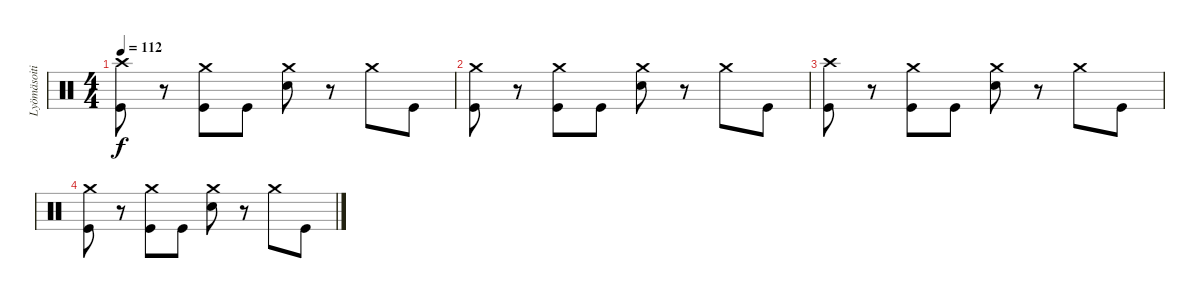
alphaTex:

\track ("Lyömäsoitin" "Lyömäsoiti") {instrument percussion}
\staff {score}
\articulation defaults
\ts (4 4)
\tempo 112
\clef neutral
\ks c
("Crash high (hit)" "Kick (hit)").8{dy f} r.8 ("Crash medium (hit)" "Kick (hit)").8 "Kick (hit)".8 ("Crash medium (hit)" "Snare (hit) 2").8 r.8 "Crash medium (hit)".8 "Kick (hit)".8 |
("Crash medium (hit)" "Kick (hit)").8{volume 0} r.8 ("Crash medium (hit)" "Kick (hit)").8 "Kick (hit)".8 ("Crash medium (hit)" "Snare (hit) 2").8 r.8 "Crash medium (hit)".8 "Kick (hit)".8 |
("Crash high (hit)" "Kick (hit)").8 r.8 ("Crash medium (hit)" "Kick (hit)").8 "Kick (hit)".8 ("Crash medium (hit)" "Snare (hit) 2").8 r.8 "Crash medium (hit)".8 "Kick (hit)".8 |
("Crash medium (hit)" "Kick (hit)").8 r.8 ("Crash medium (hit)" "Kick (hit)").8 "Kick (hit)".8 ("Crash medium (hit)" "Snare (hit) 2").8 r.8 "Crash medium (hit)".8 "Kick (hit)".8
